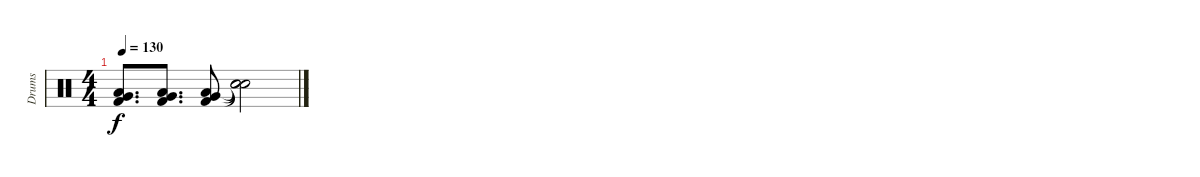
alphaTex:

\track ("Drums" "Drums") {instrument percussion}
\staff {score}
\articulation defaults
\ts (4 4)
\tempo 130
\clef neutral
\ks c
("Low Floor Tom (hit)" "Very Low Tom (hit)" "Kick (hit) 2").8{d dy f} ("Low Floor Tom (hit)" "Very Low Tom (hit)" "Kick (hit) 2").8{d} ("Low Floor Tom (hit)" "Very Low Tom (hit)" "Kick (hit) 2").8 ("Snare (hit)"{t} "Snare (hit)"{t} "Snare (hit)"{t}).2
